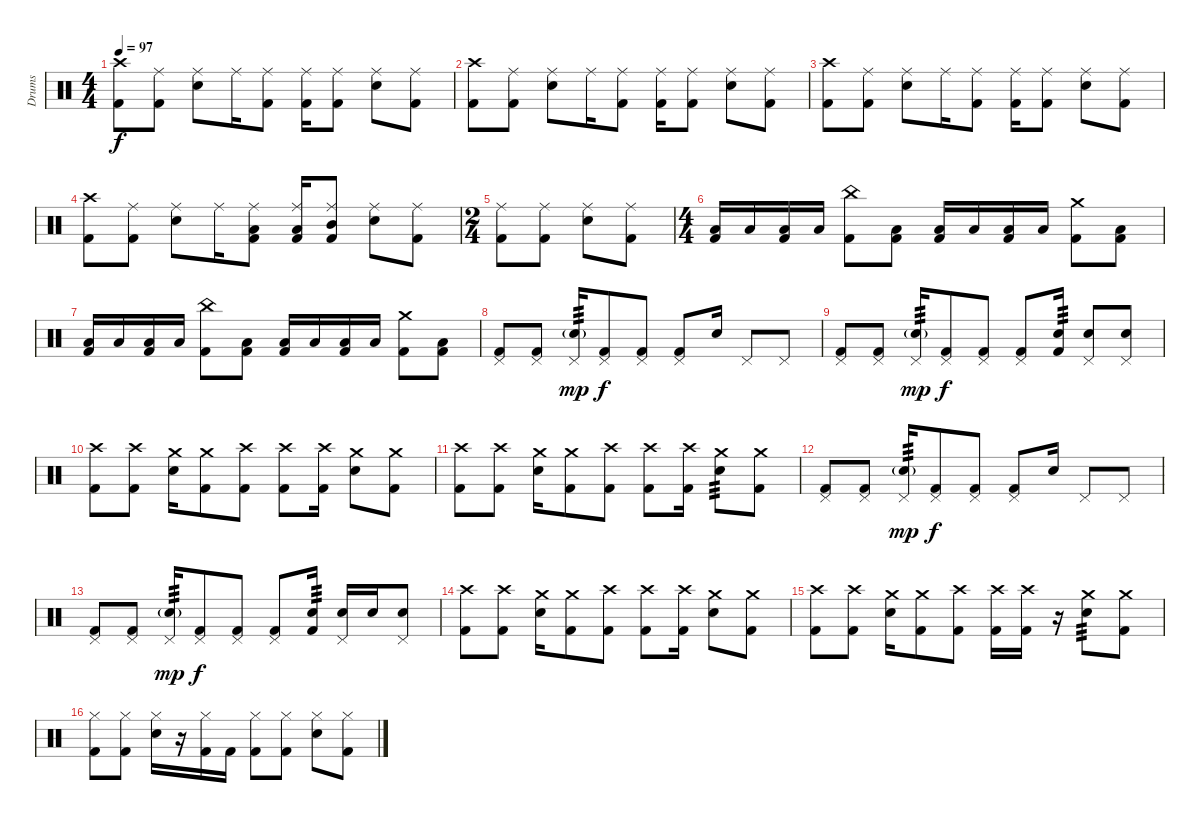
\track ("Drums" "Drums") {instrument percussion}
\staff {score}
\articulation defaults
\ts (4 4)
\tempo 97
\clef neutral
\ks c
("Crash high (hit)" "Kick (hit) 2").8{dy f} ("Ride (middle)" "Kick (hit) 2").8 ("Ride (middle)" "Snare (hit) 2").8 "Ride (middle)".16 ("Ride (middle)" "Kick (hit) 2").8 ("Ride (middle)" "Kick (hit) 2").16 ("Ride (middle)" "Kick (hit) 2").8 ("Ride (middle)" "Snare (hit) 2").8 ("Ride (middle)" "Kick (hit) 2").8 |
("Crash high (hit)" "Kick (hit) 2").8 ("Ride (middle)" "Kick (hit) 2").8 ("Ride (middle)" "Snare (hit) 2").8 "Ride (middle)".16 ("Ride (middle)" "Kick (hit) 2").8 ("Ride (middle)" "Kick (hit) 2").16 ("Ride (middle)" "Kick (hit) 2").8 ("Ride (middle)" "Snare (hit) 2").8 ("Ride (middle)" "Kick (hit) 2").8 |
("Crash high (hit)" "Kick (hit) 2").8 ("Ride (middle)" "Kick (hit) 2").8 ("Ride (middle)" "Snare (hit) 2").8 "Ride (middle)".16 ("Ride (middle)" "Kick (hit) 2").8 ("Ride (middle)" "Kick (hit) 2").16 ("Ride (middle)" "Kick (hit) 2").8 ("Ride (middle)" "Snare (hit) 2").8 ("Ride (middle)" "Kick (hit) 2").8 |
("Crash high (hit)" "Kick (hit) 2").8 ("Ride (middle)" "Kick (hit) 2").8 ("Ride (middle)" "Snare (hit) 2").8 "Ride (middle)".16 ("Ride (middle)" "Low Tom (hit)" "Kick (hit) 2").8 ("Ride (middle)" "Low Tom (hit)" "Kick (hit) 2").16 ("Ride (middle)" "Mid Tom (hit)" "Kick (hit) 2").8 ("Ride (middle)" "Snare (hit) 2").8 ("Ride (middle)" "Kick (hit) 2").8 |
\ts (2 4)
("Ride (middle)" "Kick (hit) 2").8 ("Ride (middle)" "Kick (hit) 2").8 ("Ride (middle)" "Snare (hit) 2").8 ("Ride (middle)" "Kick (hit) 2").8 |
\ts (4 4)
("Low Tom (hit)" "Kick (hit) 2").16 "Low Tom (hit)".16 ("Low Tom (hit)" "Kick (hit) 2").16 "Low Tom (hit)".16 ("China (hit)" "Kick (hit) 2").8 ("Low Tom (hit)" "Kick (hit) 2").8 ("Low Tom (hit)" "Kick (hit) 2").16 "Low Tom (hit)".16 ("Low Tom (hit)" "Kick (hit) 2").16 "Low Tom (hit)".16 ("Crash medium (hit)" "Kick (hit) 2").8 ("Low Tom (hit)" "Kick (hit) 2").8 |
("Low Tom (hit)" "Kick (hit) 2").16 "Low Tom (hit)".16 ("Low Tom (hit)" "Kick (hit) 2").16 "Low Tom (hit)".16 ("China (hit)" "Kick (hit) 2").8 ("Low Tom (hit)" "Kick (hit) 2").8 ("Low Tom (hit)" "Kick (hit) 2").16 "Low Tom (hit)".16 ("Low Tom (hit)" "Kick (hit) 2").16 "Low Tom (hit)".16 ("Crash medium (hit)" "Kick (hit) 2").8 ("Low Tom (hit)" "Kick (hit) 2").8 |
("Pedal Hi-Hat (hit)" "Kick (hit) 2").8 ("Pedal Hi-Hat (hit)" "Kick (hit) 2").8 ("Pedal Hi-Hat (hit)" "Snare (hit) 2"{g}).16{tp 3 dy mp} ("Pedal Hi-Hat (hit)" "Kick (hit) 2").8{dy f} ("Pedal Hi-Hat (hit)" "Kick (hit) 2").8 ("Pedal Hi-Hat (hit)" "Kick (hit) 2").8 "Snare (hit) 2".16 "Pedal Hi-Hat (hit)".8 "Pedal Hi-Hat (hit)".8 |
("Pedal Hi-Hat (hit)" "Kick (hit) 2").8 ("Pedal Hi-Hat (hit)" "Kick (hit) 2").8 ("Pedal Hi-Hat (hit)" "Snare (hit) 2"{g}).16{tp 3 dy mp} ("Pedal Hi-Hat (hit)" "Kick (hit) 2").8{dy f} ("Pedal Hi-Hat (hit)" "Kick (hit) 2").8 ("Pedal Hi-Hat (hit)" "Kick (hit) 2").8 ("Snare (hit) 2" "Kick (hit) 2").16{tp 3} ("Pedal Hi-Hat (hit)" "Snare (hit) 2").8 ("Snare (hit) 2" "Pedal Hi-Hat (hit)").8 |
("Crash high (hit)" "Kick (hit) 2").8{volume 16} ("Crash high (hit)" "Kick (hit) 2").8 ("Crash medium (hit)" "Snare (hit) 2").16 ("Crash medium (hit)" "Kick (hit) 2").8 ("Crash high (hit)" "Kick (hit) 2").8 ("Crash high (hit)" "Kick (hit) 2").8 ("Crash high (hit)" "Kick (hit) 2").16 ("Crash medium (hit)" "Snare (hit) 2").8 ("Crash medium (hit)" "Kick (hit) 2").8 |
("Crash high (hit)" "Kick (hit) 2").8 ("Crash high (hit)" "Kick (hit) 2").8 ("Crash medium (hit)" "Snare (hit) 2").16 ("Crash medium (hit)" "Kick (hit) 2").8 ("Crash high (hit)" "Kick (hit) 2").8 ("Crash high (hit)" "Kick (hit) 2").8 ("Crash high (hit)" "Kick (hit) 2").16 ("Crash medium (hit)" "Snare (hit) 2").8{tp 3} ("Crash medium (hit)" "Kick (hit) 2").8 |
("Pedal Hi-Hat (hit)" "Kick (hit) 2").8 ("Pedal Hi-Hat (hit)" "Kick (hit) 2").8 ("Pedal Hi-Hat (hit)" "Snare (hit) 2"{g}).16{tp 3 dy mp} ("Pedal Hi-Hat (hit)" "Kick (hit) 2").8{dy f} ("Pedal Hi-Hat (hit)" "Kick (hit) 2").8 ("Pedal Hi-Hat (hit)" "Kick (hit) 2").8 "Snare (hit) 2".16 "Pedal Hi-Hat (hit)".8 "Pedal Hi-Hat (hit)".8 |
("Pedal Hi-Hat (hit)" "Kick (hit) 2").8 ("Pedal Hi-Hat (hit)" "Kick (hit) 2").8 ("Pedal Hi-Hat (hit)" "Snare (hit) 2"{g}).16{tp 3 dy mp} ("Pedal Hi-Hat (hit)" "Kick (hit) 2").8{dy f} ("Pedal Hi-Hat (hit)" "Kick (hit) 2").8 ("Pedal Hi-Hat (hit)" "Kick (hit) 2").8 ("Snare (hit) 2" "Kick (hit) 2").16{tp 3} ("Pedal Hi-Hat (hit)" "Snare (hit) 2").16 "Snare (hit) 2".16 ("Pedal Hi-Hat (hit)" "Snare (hit) 2").8 |
("Crash high (hit)" "Kick (hit) 2").8{volume 16} ("Crash high (hit)" "Kick (hit) 2").8 ("Crash medium (hit)" "Snare (hit) 2").16 ("Crash medium (hit)" "Kick (hit) 2").8 ("Crash high (hit)" "Kick (hit) 2").8 ("Crash high (hit)" "Kick (hit) 2").8 ("Crash high (hit)" "Kick (hit) 2").16 ("Crash medium (hit)" "Snare (hit) 2").8 ("Crash medium (hit)" "Kick (hit) 2").8 |
("Crash high (hit)" "Kick (hit) 2").8 ("Crash high (hit)" "Kick (hit) 2").8 ("Crash medium (hit)" "Snare (hit) 2").16 ("Crash medium (hit)" "Kick (hit) 2").8 ("Crash high (hit)" "Kick (hit) 2").8 ("Crash high (hit)" "Kick (hit) 2").16 ("Crash high (hit)" "Kick (hit) 2").16 r.16 ("Crash medium (hit)" "Snare (hit) 2").8{tp 3} ("Crash medium (hit)" "Kick (hit) 2").8 |
("Hi-Hat (closed)" "Kick (hit) 2").8 ("Hi-Hat (closed)" "Kick (hit) 2").8 ("Hi-Hat (closed)" "Snare (hit) 2").16 r.16 ("Hi-Hat (closed)" "Kick (hit) 2").16 "Kick (hit) 2".16 ("Hi-Hat (closed)" "Kick (hit) 2").8 ("Hi-Hat (closed)" "Kick (hit) 2").8 ("Hi-Hat (closed)" "Snare (hit) 2").8 ("Hi-Hat (closed)" "Kick (hit) 2").8
